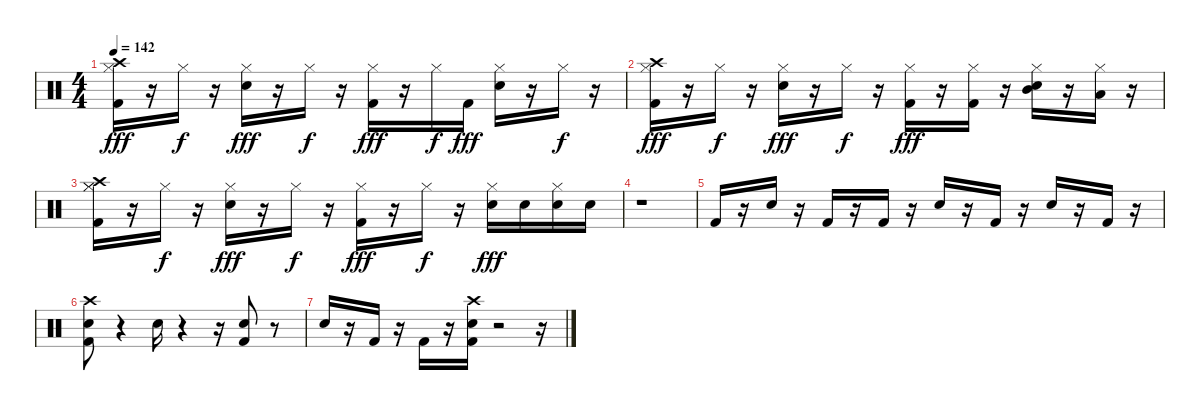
\track "" {instrument percussion}
\staff {score}
\articulation defaults
\ts (4 4)
\tempo 142
\clef neutral
\ks c
("Crash high (hit)" "Hi-Hat (closed)" "Kick (hit) 2").16{dy fff} r.16 "Hi-Hat (closed)".16{dy f} r.16 ("Hi-Hat (closed)" "Electric Snare (hit)").16{dy fff} r.16 "Hi-Hat (closed)".16{dy f} r.16 ("Hi-Hat (closed)" "Kick (hit) 2").16{dy fff} r.16 "Hi-Hat (closed)".16{dy f} "Kick (hit) 2".16{dy fff} ("Hi-Hat (closed)" "Electric Snare (hit)").16 r.16 "Hi-Hat (closed)".16{dy f} r.16 |
("Hi-Hat (closed)" "Crash high (hit)" "Kick (hit) 2").16{dy fff} r.16 "Hi-Hat (closed)".16{dy f} r.16 ("Hi-Hat (closed)" "Electric Snare (hit)").16{dy fff} r.16 "Hi-Hat (closed)".16{dy f} r.16 ("Hi-Hat (closed)" "Kick (hit) 2").16{dy fff} r.16 ("Hi-Hat (closed)" "Kick (hit) 2").16 r.16 ("Mid Tom (hit)" "Hi-Hat (closed)" "Electric Snare (hit)").16{balance 0} r.16 ("Low Tom (hit)" "Hi-Hat (closed)").16{balance 15} r.16 |
("Crash high (hit)" "Hi-Hat (closed)" "Hi-Hat (closed)" "Kick (hit) 2").16{balance 8} r.16 "Hi-Hat (closed)".16{dy f} r.16 ("Hi-Hat (closed)" "Electric Snare (hit)").16{dy fff} r.16 "Hi-Hat (closed)".16{dy f} r.16 ("Hi-Hat (closed)" "Kick (hit) 2").16{dy fff} r.16 "Hi-Hat (closed)".16{dy f} r.16 ("Hi-Hat (closed)" "Electric Snare (hit)").16{dy fff} "Snare (hit) 2".16 ("Electric Snare (hit)" "Hi-Hat (closed)").16 "Snare (hit) 2".16 |
r.1 |
"Kick (hit) 2".16 r.16 "Snare (hit) 2".16 r.16 "Kick (hit) 2".16 r.16 "Kick (hit) 2".16 r.16 "Snare (hit) 2".16 r.16 "Kick (hit) 2".16 r.16 "Snare (hit) 2".16 r.16 "Kick (hit) 2".16 r.16 |
("Snare (hit) 2" "Kick (hit) 2" "Crash high (hit)").8 r.4 "Snare (hit) 2".16 r.4 r.16 ("Snare (hit) 2" "Kick (hit) 2").8 r.8 |
"Snare (hit) 2".16 r.16 "Kick (hit) 2".16 r.16 "Kick (hit) 2".16 r.16 ("Crash high (hit)" "Snare (hit) 2" "Kick (hit) 2").16 r.2 r.16
